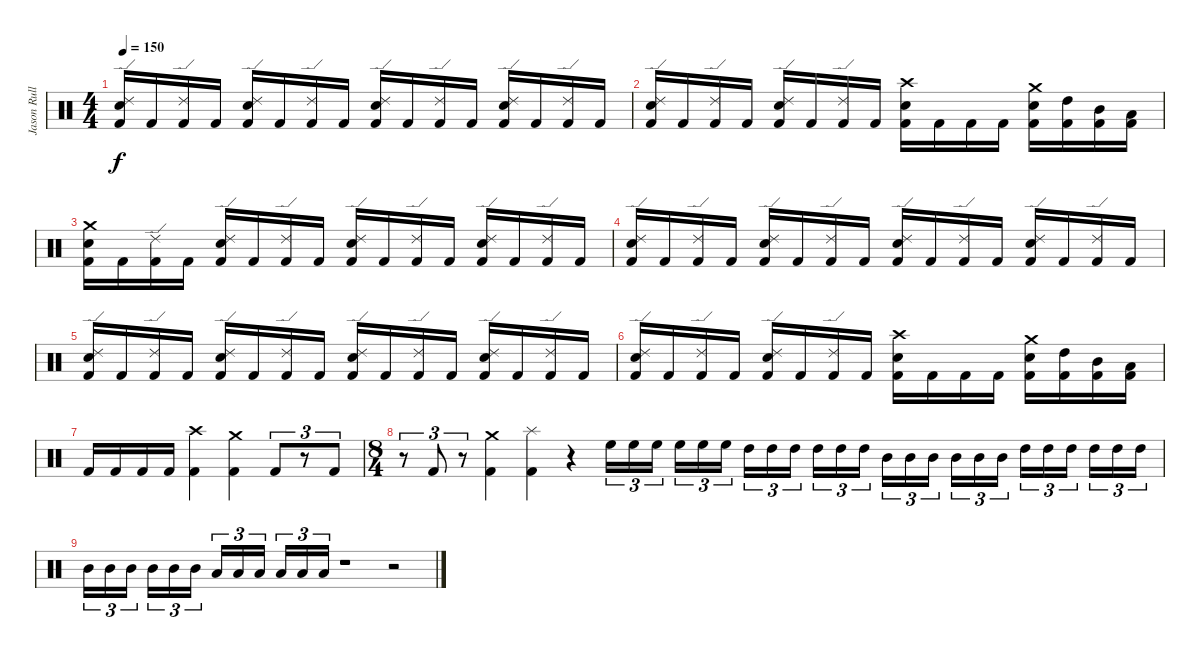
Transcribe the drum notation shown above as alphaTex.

\track ("Jason Rullo" "Jason Rull") {instrument percussion}
\staff {score}
\articulation defaults
\ts (4 4)
\tempo 150
\clef neutral
\ks c
("Ride (edge) 2" "Electric Snare (hit)" "Kick (hit) 2").16{dy f} "Kick (hit) 2".16 ("Ride (edge) 2" "Kick (hit) 2").16 "Kick (hit) 2".16 ("Ride (edge) 2" "Electric Snare (hit)" "Kick (hit) 2").16 "Kick (hit) 2".16 ("Ride (edge) 2" "Kick (hit) 2").16 "Kick (hit) 2".16 ("Ride (edge) 2" "Electric Snare (hit)" "Kick (hit) 2").16 "Kick (hit) 2".16 ("Ride (edge) 2" "Kick (hit) 2").16 "Kick (hit) 2".16 ("Ride (edge) 2" "Electric Snare (hit)" "Kick (hit) 2").16 "Kick (hit) 2".16 ("Ride (edge) 2" "Kick (hit) 2").16 "Kick (hit) 2".16 |
("Ride (edge) 2" "Electric Snare (hit)" "Kick (hit) 2").16 "Kick (hit) 2".16 ("Ride (edge) 2" "Kick (hit) 2").16 "Kick (hit) 2".16 ("Ride (edge) 2" "Electric Snare (hit)" "Kick (hit) 2").16 "Kick (hit) 2".16 ("Ride (edge) 2" "Kick (hit) 2").16 "Kick (hit) 2".16 ("Crash high (hit)" "Electric Snare (hit)" "Kick (hit) 2").16 "Kick (hit) 2".16 "Kick (hit) 2".16 "Kick (hit) 2".16 ("Crash medium (hit)" "Electric Snare (hit)" "Kick (hit) 2").16 ("High Tom (hit)" "Kick (hit) 2").16 ("Mid Tom (hit)" "Kick (hit) 2").16 ("Low Tom (hit)" "Kick (hit) 2").16 |
("Crash medium (hit)" "Electric Snare (hit)" "Kick (hit) 2").16 "Kick (hit) 2".16 ("Ride (edge) 2" "Kick (hit) 2").16 "Kick (hit) 2".16 ("Ride (edge) 2" "Electric Snare (hit)" "Kick (hit) 2").16 "Kick (hit) 2".16 ("Ride (edge) 2" "Kick (hit) 2").16 "Kick (hit) 2".16 ("Ride (edge) 2" "Electric Snare (hit)" "Kick (hit) 2").16 "Kick (hit) 2".16 ("Ride (edge) 2" "Kick (hit) 2").16 "Kick (hit) 2".16 ("Ride (edge) 2" "Electric Snare (hit)" "Kick (hit) 2").16 "Kick (hit) 2".16 ("Ride (edge) 2" "Kick (hit) 2").16 "Kick (hit) 2".16 |
("Ride (edge) 2" "Electric Snare (hit)" "Kick (hit) 2").16 "Kick (hit) 2".16 ("Ride (edge) 2" "Kick (hit) 2").16 "Kick (hit) 2".16 ("Ride (edge) 2" "Electric Snare (hit)" "Kick (hit) 2").16 "Kick (hit) 2".16 ("Ride (edge) 2" "Kick (hit) 2").16 "Kick (hit) 2".16 ("Ride (edge) 2" "Electric Snare (hit)" "Kick (hit) 2").16 "Kick (hit) 2".16 ("Ride (edge) 2" "Kick (hit) 2").16 "Kick (hit) 2".16 ("Ride (edge) 2" "Electric Snare (hit)" "Kick (hit) 2").16 "Kick (hit) 2".16 ("Ride (edge) 2" "Kick (hit) 2").16 "Kick (hit) 2".16 |
("Ride (edge) 2" "Electric Snare (hit)" "Kick (hit) 2").16 "Kick (hit) 2".16 ("Ride (edge) 2" "Kick (hit) 2").16 "Kick (hit) 2".16 ("Ride (edge) 2" "Electric Snare (hit)" "Kick (hit) 2").16 "Kick (hit) 2".16 ("Ride (edge) 2" "Kick (hit) 2").16 "Kick (hit) 2".16 ("Ride (edge) 2" "Electric Snare (hit)" "Kick (hit) 2").16 "Kick (hit) 2".16 ("Ride (edge) 2" "Kick (hit) 2").16 "Kick (hit) 2".16 ("Ride (edge) 2" "Electric Snare (hit)" "Kick (hit) 2").16 "Kick (hit) 2".16 ("Ride (edge) 2" "Kick (hit) 2").16 "Kick (hit) 2".16 |
("Ride (edge) 2" "Electric Snare (hit)" "Kick (hit) 2").16 "Kick (hit) 2".16 ("Ride (edge) 2" "Kick (hit) 2").16 "Kick (hit) 2".16 ("Ride (edge) 2" "Electric Snare (hit)" "Kick (hit) 2").16 "Kick (hit) 2".16 ("Ride (edge) 2" "Kick (hit) 2").16 "Kick (hit) 2".16 ("Crash high (hit)" "Electric Snare (hit)" "Kick (hit) 2").16 "Kick (hit) 2".16 "Kick (hit) 2".16 "Kick (hit) 2".16 ("Crash medium (hit)" "Electric Snare (hit)" "Kick (hit) 2").16 ("High Tom (hit)" "Kick (hit) 2").16 ("Mid Tom (hit)" "Kick (hit) 2").16 ("Low Tom (hit)" "Kick (hit) 2").16 |
"Kick (hit) 2".16 "Kick (hit) 2".16 "Kick (hit) 2".16 "Kick (hit) 2".16 ("Crash high (hit)" "Kick (hit) 2").4 ("Crash medium (hit)" "Kick (hit) 2").4 "Kick (hit) 2".8{tu (3 2)} r.8{tu (3 2)} "Kick (hit) 2".8{tu (3 2)} |
\ts (8 4)
r.8{tu (3 2)} "Kick (hit) 2".8{tu (3 2)} r.8{tu (3 2)} ("Crash medium (hit)" "Kick (hit) 2").4 ("Splash (hit)" "Kick (hit) 2").4 r.4 "High Floor Tom (hit)".16{tu (3 2) volume 16} "High Floor Tom (hit)".16{tu (3 2) volume 16} "High Floor Tom (hit)".16{tu (3 2) volume 16} "High Floor Tom (hit)".16{tu (3 2) volume 16} "High Floor Tom (hit)".16{tu (3 2) volume 15} "High Floor Tom (hit)".16{tu (3 2) volume 15} "High Tom (hit)".16{tu (3 2) volume 15} "High Tom (hit)".16{tu (3 2) volume 15} "High Tom (hit)".16{tu (3 2) volume 15} "High Tom (hit)".16{tu (3 2) volume 15} "High Tom (hit)".16{tu (3 2) volume 14} "High Tom (hit)".16{tu (3 2) volume 14} "Mid Tom (hit)".16{tu (3 2) volume 14} "Mid Tom (hit)".16{tu (3 2) volume 14} "Mid Tom (hit)".16{tu (3 2) volume 14} "Mid Tom (hit)".16{tu (3 2) volume 14} "Mid Tom (hit)".16{tu (3 2) volume 14} "Mid Tom (hit)".16{tu (3 2) volume 13} "High Tom (hit)".16{tu (3 2) volume 13} "High Tom (hit)".16{tu (3 2) volume 13} "High Tom (hit)".16{tu (3 2) volume 13} "High Tom (hit)".16{tu (3 2) volume 13} "High Tom (hit)".16{tu (3 2) volume 13} "High Tom (hit)".16{tu (3 2) volume 12} |
"Mid Tom (hit)".16{tu (3 2) volume 12} "Mid Tom (hit)".16{tu (3 2) volume 12} "Mid Tom (hit)".16{tu (3 2) volume 12} "Mid Tom (hit)".16{tu (3 2) volume 12} "Mid Tom (hit)".16{tu (3 2) volume 12} "Mid Tom (hit)".16{tu (3 2) volume 12} "Low Tom (hit)".16{tu (3 2) volume 11} "Low Tom (hit)".16{tu (3 2) volume 11} "Low Tom (hit)".16{tu (3 2) volume 11} "Low Tom (hit)".16{tu (3 2) volume 11} "Low Tom (hit)".16{tu (3 2) volume 11} "Low Tom (hit)".16{tu (3 2) volume 11} r.1 r.2
